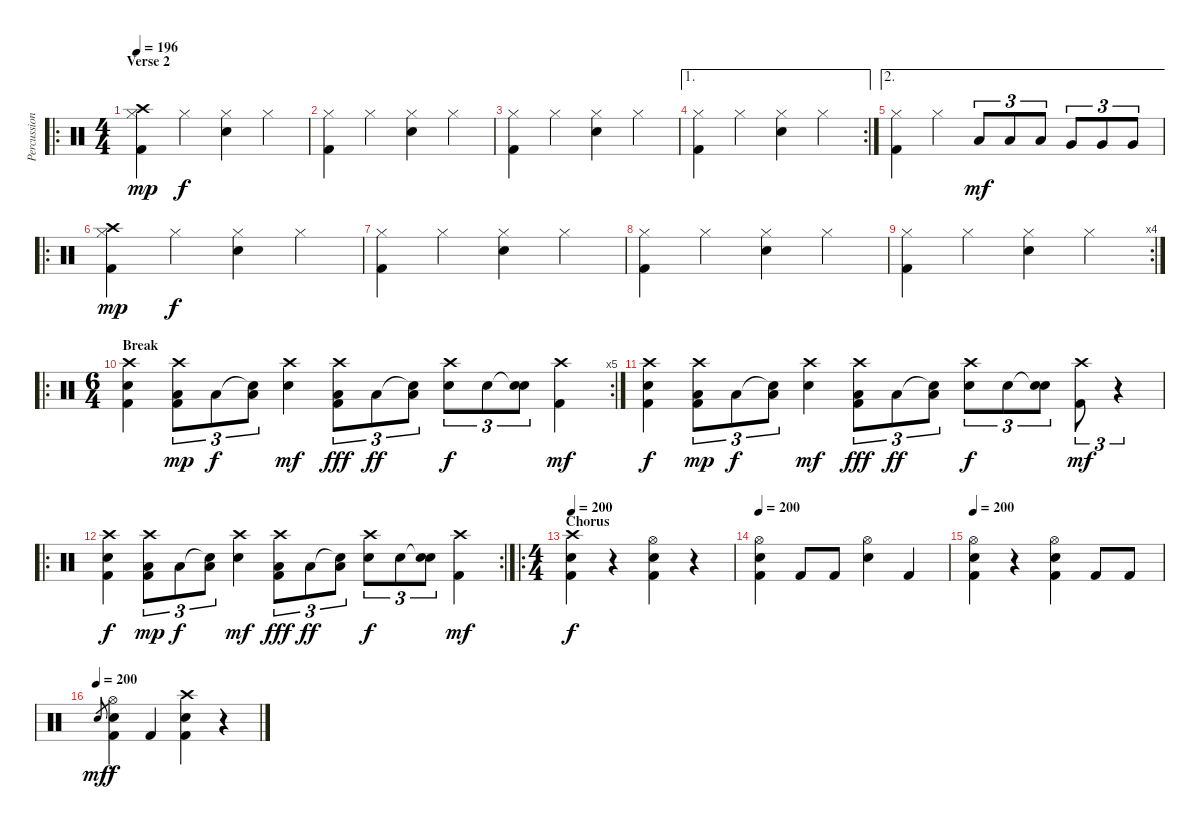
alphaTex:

\track ("Percussion" "Percussion") {instrument percussion}
\staff {score}
\articulation defaults
\ro
\ts (4 4)
\section ("" "Verse 2")
\tempo 196
\clef neutral
\ks c
("Crash high (hit)" "Hi-Hat (closed)" "Kick (hit) 2").4{dy mp} "Hi-Hat (closed)".4{dy f} ("Hi-Hat (closed)" "Snare (hit) 2").4 "Hi-Hat (closed)".4 |
("Hi-Hat (closed)" "Kick (hit) 2").4 "Hi-Hat (closed)".4 ("Hi-Hat (closed)" "Snare (hit) 2").4 "Hi-Hat (closed)".4 |
("Hi-Hat (closed)" "Kick (hit) 2").4 "Hi-Hat (closed)".4 ("Hi-Hat (closed)" "Snare (hit) 2").4 "Hi-Hat (closed)".4 |
\ae 1
\rc 2
("Hi-Hat (closed)" "Kick (hit) 2").4 "Hi-Hat (closed)".4 ("Hi-Hat (closed)" "Snare (hit) 2").4 "Hi-Hat (closed)".4 |
\ae 2
("Hi-Hat (closed)" "Kick (hit) 2").4 "Hi-Hat (closed)".4 "Low Tom (hit)".8{tu (3 2) dy mf} "Low Tom (hit)".8{tu (3 2)} "Low Tom (hit)".8{tu (3 2)} "Very Low Tom (hit)".8{tu (3 2)} "Very Low Tom (hit)".8{tu (3 2)} "Very Low Tom (hit)".8{tu (3 2)} |
\ro
("Crash high (hit)" "Hi-Hat (closed)" "Kick (hit) 2").4{dy mp} "Hi-Hat (closed)".4{dy f} ("Hi-Hat (closed)" "Snare (hit) 2").4 "Hi-Hat (closed)".4 |
("Hi-Hat (closed)" "Kick (hit) 2").4 "Hi-Hat (closed)".4 ("Hi-Hat (closed)" "Snare (hit) 2").4 "Hi-Hat (closed)".4 |
("Hi-Hat (closed)" "Kick (hit) 2").4 "Hi-Hat (closed)".4 ("Hi-Hat (closed)" "Snare (hit) 2").4 "Hi-Hat (closed)".4 |
\rc 4
("Hi-Hat (closed)" "Kick (hit) 2").4 "Hi-Hat (closed)".4 ("Hi-Hat (closed)" "Snare (hit) 2").4 "Hi-Hat (closed)".4 |
\ro
\rc 5
\ts (6 4)
\section ("" "Break")
("Crash high (hit)" "Snare (hit) 2" "Kick (hit) 2").4 ("Crash high (hit)" "Low Floor Tom (hit)" "Kick (hit) 2").8{tu (3 2) dy mp} "Low Floor Tom (hit)".8{tu (3 2) dy f} ("Snare (hit)"{t} "Low Floor Tom (hit)").8{tu (3 2)} ("Crash high (hit)" "Snare (hit) 2").4{dy mf} ("Crash high (hit)" "Low Floor Tom (hit)" "Kick (hit) 2").8{tu (3 2) dy fff} "Low Floor Tom (hit)".8{tu (3 2) dy ff} ("Snare (hit)"{t} "Low Floor Tom (hit)").8{tu (3 2)} ("Crash high (hit)" "Snare (hit) 2").8{tu (3 2) dy f} "Snare (hit) 2".8{tu (3 2)} ("Snare (hit)"{t} "Snare (hit) 2").8{tu (3 2)} ("Crash high (hit)" "Kick (hit) 2").4{dy mf} |
("Crash high (hit)" "Snare (hit) 2" "Kick (hit) 2").4{dy f} ("Crash high (hit)" "Low Floor Tom (hit)" "Kick (hit) 2").8{tu (3 2) dy mp} "Low Floor Tom (hit)".8{tu (3 2) dy f} ("Snare (hit)"{t} "Low Floor Tom (hit)").8{tu (3 2)} ("Crash high (hit)" "Snare (hit) 2").4{dy mf} ("Crash high (hit)" "Low Floor Tom (hit)" "Kick (hit) 2").8{tu (3 2) dy fff} "Low Floor Tom (hit)".8{tu (3 2) dy ff} ("Snare (hit)"{t} "Low Floor Tom (hit)").8{tu (3 2)} ("Crash high (hit)" "Snare (hit) 2").8{tu (3 2) dy f} "Snare (hit) 2".8{tu (3 2)} ("Snare (hit)"{t} "Snare (hit) 2").8{tu (3 2)} ("Crash high (hit)" "Kick (hit) 2").8{tu (3 2) dy mf} r.4{tu (3 2)} |
\ro
\rc 2
("Crash high (hit)" "Snare (hit) 2" "Kick (hit) 2").4{dy f} ("Crash high (hit)" "Low Floor Tom (hit)" "Kick (hit) 2").8{tu (3 2) dy mp} "Low Floor Tom (hit)".8{tu (3 2) dy f} ("Snare (hit)"{t} "Low Floor Tom (hit)").8{tu (3 2)} ("Crash high (hit)" "Snare (hit) 2").4{dy mf} ("Crash high (hit)" "Low Floor Tom (hit)" "Kick (hit) 2").8{tu (3 2) dy fff} "Low Floor Tom (hit)".8{tu (3 2) dy ff} ("Snare (hit)"{t} "Low Floor Tom (hit)").8{tu (3 2)} ("Crash high (hit)" "Snare (hit) 2").8{tu (3 2) dy f} "Snare (hit) 2".8{tu (3 2)} ("Snare (hit)"{t} "Snare (hit) 2").8{tu (3 2)} ("Crash high (hit)" "Kick (hit) 2").4{dy mf} |
\ro
\ts (4 4)
\section ("" "Chorus")
\tempo 200
("Crash high (hit)" "Snare (hit) 2" "Kick (hit) 2").4{dy f} r.4 ("Hi-Hat (open)" "Snare (hit) 2" "Kick (hit) 2").4 r.4 |
\tempo 200
("Hi-Hat (open)" "Snare (hit) 2" "Kick (hit) 2").4 "Kick (hit) 2".8 "Kick (hit) 2".8 ("Hi-Hat (open)" "Snare (hit) 2").4 "Kick (hit) 2".4 |
\tempo 200
("Hi-Hat (open)" "Snare (hit) 2" "Kick (hit) 2").4 r.4 ("Hi-Hat (open)" "Snare (hit) 2" "Kick (hit) 2").4 "Kick (hit) 2".8 "Kick (hit) 2".8 |
\tempo (200)
"Snare (hit) 2".8{gr dy mf} ("Hi-Hat (open)" "Snare (hit) 2" "Kick (hit) 2").4{dy f} "Kick (hit) 2".4 ("Crash high (hit)" "Snare (hit) 2" "Kick (hit) 2").4 r.4
